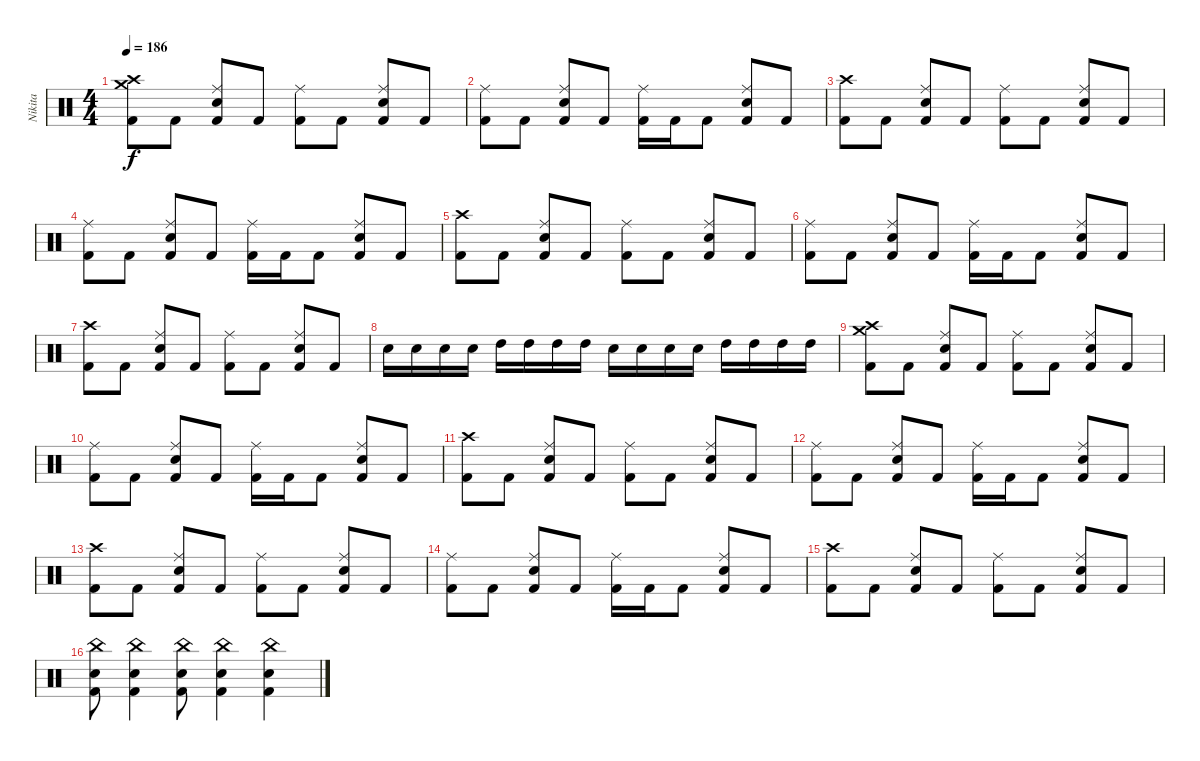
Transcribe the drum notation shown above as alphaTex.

\track ("Nikita" "Nikita") {instrument percussion}
\staff {score}
\articulation defaults
\ts (4 4)
\tempo 186
\clef neutral
\ks c
("Crash high (hit)" "Crash medium (hit)" "Kick (hit) 2").8{dy f} "Kick (hit) 2".8 ("Ride (middle)" "Electric Snare (hit)" "Kick (hit) 2").8 "Kick (hit) 2".8 ("Ride (middle)" "Kick (hit) 2").8 "Kick (hit) 2".8 ("Ride (middle)" "Electric Snare (hit)" "Kick (hit) 2").8 "Kick (hit) 2".8 |
("Ride (middle)" "Kick (hit) 2").8 "Kick (hit) 2".8 ("Ride (middle)" "Electric Snare (hit)" "Kick (hit) 2").8 "Kick (hit) 2".8 ("Ride (middle)" "Kick (hit) 2").16 "Kick (hit) 2".16 "Kick (hit) 2".8 ("Ride (middle)" "Electric Snare (hit)" "Kick (hit) 2").8 "Kick (hit) 2".8 |
("Crash high (hit)" "Kick (hit) 2").8 "Kick (hit) 2".8 ("Ride (middle)" "Electric Snare (hit)" "Kick (hit) 2").8 "Kick (hit) 2".8 ("Ride (middle)" "Kick (hit) 2").8 "Kick (hit) 2".8 ("Ride (middle)" "Electric Snare (hit)" "Kick (hit) 2").8 "Kick (hit) 2".8 |
("Ride (middle)" "Kick (hit) 2").8 "Kick (hit) 2".8 ("Ride (middle)" "Electric Snare (hit)" "Kick (hit) 2").8 "Kick (hit) 2".8 ("Ride (middle)" "Kick (hit) 2").16 "Kick (hit) 2".16 "Kick (hit) 2".8 ("Ride (middle)" "Electric Snare (hit)" "Kick (hit) 2").8 "Kick (hit) 2".8 |
("Crash high (hit)" "Kick (hit) 2").8 "Kick (hit) 2".8 ("Ride (middle)" "Electric Snare (hit)" "Kick (hit) 2").8 "Kick (hit) 2".8 ("Ride (middle)" "Kick (hit) 2").8 "Kick (hit) 2".8 ("Ride (middle)" "Electric Snare (hit)" "Kick (hit) 2").8 "Kick (hit) 2".8 |
("Ride (middle)" "Kick (hit) 2").8 "Kick (hit) 2".8 ("Ride (middle)" "Electric Snare (hit)" "Kick (hit) 2").8 "Kick (hit) 2".8 ("Ride (middle)" "Kick (hit) 2").16 "Kick (hit) 2".16 "Kick (hit) 2".8 ("Ride (middle)" "Electric Snare (hit)" "Kick (hit) 2").8 "Kick (hit) 2".8 |
("Crash high (hit)" "Kick (hit) 2").8 "Kick (hit) 2".8 ("Ride (middle)" "Electric Snare (hit)" "Kick (hit) 2").8 "Kick (hit) 2".8 ("Ride (middle)" "Kick (hit) 2").8 "Kick (hit) 2".8 ("Ride (middle)" "Electric Snare (hit)" "Kick (hit) 2").8 "Kick (hit) 2".8 |
"Electric Snare (hit)".16 "Electric Snare (hit)".16 "Electric Snare (hit)".16 "Electric Snare (hit)".16 "High Tom (hit)".16 "High Tom (hit)".16 "High Tom (hit)".16 "High Tom (hit)".16 "Electric Snare (hit)".16 "Electric Snare (hit)".16 "Electric Snare (hit)".16 "Electric Snare (hit)".16 "High Tom (hit)".16 "High Tom (hit)".16 "High Tom (hit)".16 "High Tom (hit)".16 |
("Crash high (hit)" "Crash medium (hit)" "Kick (hit) 2").8 "Kick (hit) 2".8 ("Ride (middle)" "Electric Snare (hit)" "Kick (hit) 2").8 "Kick (hit) 2".8 ("Ride (middle)" "Kick (hit) 2").8 "Kick (hit) 2".8 ("Ride (middle)" "Electric Snare (hit)" "Kick (hit) 2").8 "Kick (hit) 2".8 |
("Ride (middle)" "Kick (hit) 2").8 "Kick (hit) 2".8 ("Ride (middle)" "Electric Snare (hit)" "Kick (hit) 2").8 "Kick (hit) 2".8 ("Ride (middle)" "Kick (hit) 2").16 "Kick (hit) 2".16 "Kick (hit) 2".8 ("Ride (middle)" "Electric Snare (hit)" "Kick (hit) 2").8 "Kick (hit) 2".8 |
("Crash high (hit)" "Kick (hit) 2").8 "Kick (hit) 2".8 ("Ride (middle)" "Electric Snare (hit)" "Kick (hit) 2").8 "Kick (hit) 2".8 ("Ride (middle)" "Kick (hit) 2").8 "Kick (hit) 2".8 ("Ride (middle)" "Electric Snare (hit)" "Kick (hit) 2").8 "Kick (hit) 2".8 |
("Ride (middle)" "Kick (hit) 2").8 "Kick (hit) 2".8 ("Ride (middle)" "Electric Snare (hit)" "Kick (hit) 2").8 "Kick (hit) 2".8 ("Ride (middle)" "Kick (hit) 2").16 "Kick (hit) 2".16 "Kick (hit) 2".8 ("Ride (middle)" "Electric Snare (hit)" "Kick (hit) 2").8 "Kick (hit) 2".8 |
("Crash high (hit)" "Kick (hit) 2").8 "Kick (hit) 2".8 ("Ride (middle)" "Electric Snare (hit)" "Kick (hit) 2").8 "Kick (hit) 2".8 ("Ride (middle)" "Kick (hit) 2").8 "Kick (hit) 2".8 ("Ride (middle)" "Electric Snare (hit)" "Kick (hit) 2").8 "Kick (hit) 2".8 |
("Ride (middle)" "Kick (hit) 2").8 "Kick (hit) 2".8 ("Ride (middle)" "Electric Snare (hit)" "Kick (hit) 2").8 "Kick (hit) 2".8 ("Ride (middle)" "Kick (hit) 2").16 "Kick (hit) 2".16 "Kick (hit) 2".8 ("Ride (middle)" "Electric Snare (hit)" "Kick (hit) 2").8 "Kick (hit) 2".8 |
("Crash high (hit)" "Kick (hit) 2").8 "Kick (hit) 2".8 ("Ride (middle)" "Electric Snare (hit)" "Kick (hit) 2").8 "Kick (hit) 2".8 ("Ride (middle)" "Kick (hit) 2").8 "Kick (hit) 2".8 ("Ride (middle)" "Electric Snare (hit)" "Kick (hit) 2").8 "Kick (hit) 2".8 |
("China (hit)" "Electric Snare (hit)" "Kick (hit) 2").8 ("China (hit)" "Electric Snare (hit)" "Kick (hit) 2").4 ("China (hit)" "Electric Snare (hit)" "Kick (hit) 2").8 ("China (hit)" "Electric Snare (hit)" "Kick (hit) 2").4 ("China (hit)" "Electric Snare (hit)" "Kick (hit) 2").4
